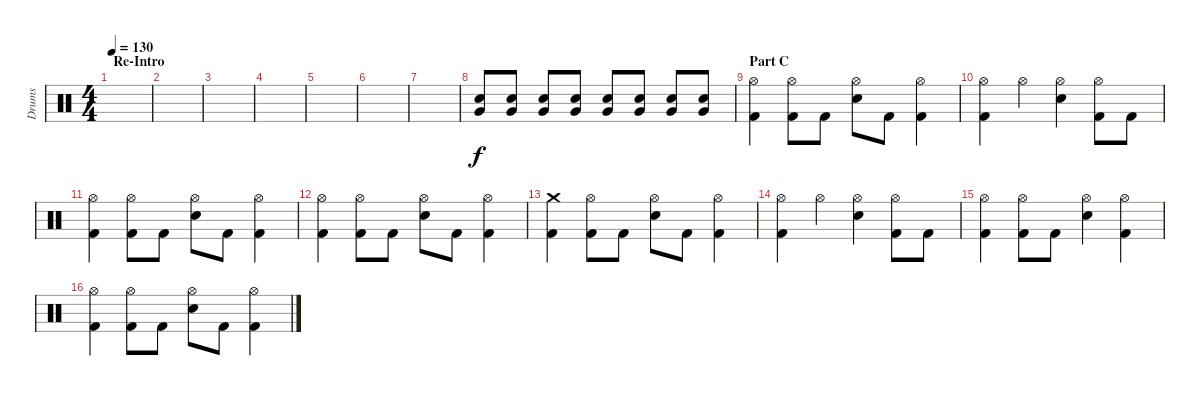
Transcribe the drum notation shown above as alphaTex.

\track ("Drums" "Drums") {instrument percussion}
\staff {score}
\articulation defaults
\ts (4 4)
\section ("" "Re-Intro")
\tempo 130
\clef neutral
\ks c
|
|
|
|
|
|
|
("Very Low Tom (hit)" "Electric Snare (hit)").8 ("Very Low Tom (hit)" "Electric Snare (hit)").8 ("Very Low Tom (hit)" "Electric Snare (hit)").8 ("Very Low Tom (hit)" "Electric Snare (hit)").8 ("Very Low Tom (hit)" "Electric Snare (hit)").8 ("Very Low Tom (hit)" "Electric Snare (hit)").8 ("Very Low Tom (hit)" "Electric Snare (hit)").8 ("Very Low Tom (hit)" "Electric Snare (hit)").8 |
\section ("" "Part C")
("Hi-Hat (open)" "Kick (hit) 2").4 ("Hi-Hat (open)" "Kick (hit) 2").8 "Kick (hit) 2".8 ("Hi-Hat (open)" "Electric Snare (hit)").8 "Kick (hit) 2".8 ("Hi-Hat (open)" "Kick (hit) 2").4 |
("Hi-Hat (open)" "Kick (hit) 2").4 "Hi-Hat (open)".4 ("Hi-Hat (open)" "Electric Snare (hit)").4 ("Hi-Hat (open)" "Kick (hit) 2").8 "Kick (hit) 2".8 |
("Hi-Hat (open)" "Kick (hit) 2").4 ("Hi-Hat (open)" "Kick (hit) 2").8 "Kick (hit) 2".8 ("Hi-Hat (open)" "Electric Snare (hit)").8 "Kick (hit) 2".8 ("Hi-Hat (open)" "Kick (hit) 2").4 |
("Hi-Hat (open)" "Kick (hit) 2").4 ("Hi-Hat (open)" "Kick (hit) 2").8 "Kick (hit) 2".8 ("Hi-Hat (open)" "Electric Snare (hit)").8 "Kick (hit) 2".8 ("Hi-Hat (open)" "Kick (hit) 2").4 |
("Crash medium (hit)" "Kick (hit) 2").4 ("Hi-Hat (open)" "Kick (hit) 2").8 "Kick (hit) 2".8 ("Hi-Hat (open)" "Electric Snare (hit)").8 "Kick (hit) 2".8 ("Hi-Hat (open)" "Kick (hit) 2").4 |
("Hi-Hat (open)" "Kick (hit) 2").4 "Hi-Hat (open)".4 ("Hi-Hat (open)" "Electric Snare (hit)").4 ("Hi-Hat (open)" "Kick (hit) 2").8 "Kick (hit) 2".8 |
("Hi-Hat (open)" "Kick (hit) 2").4 ("Hi-Hat (open)" "Kick (hit) 2").8 "Kick (hit) 2".8 ("Hi-Hat (open)" "Electric Snare (hit)").4 ("Hi-Hat (open)" "Kick (hit) 2").4 |
("Hi-Hat (open)" "Kick (hit) 2").4 ("Hi-Hat (open)" "Kick (hit) 2").8 "Kick (hit) 2".8 ("Hi-Hat (open)" "Electric Snare (hit)").8 "Kick (hit) 2".8 ("Hi-Hat (open)" "Kick (hit) 2").4
